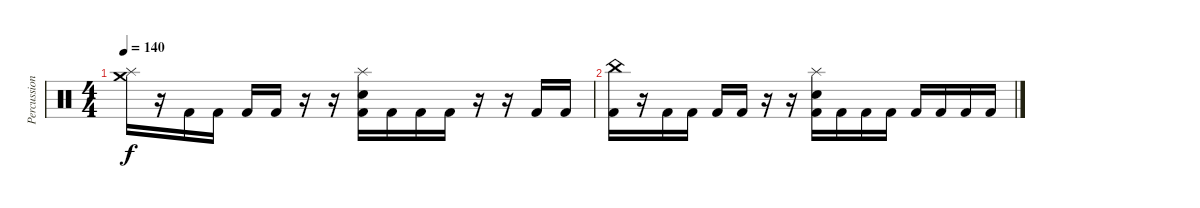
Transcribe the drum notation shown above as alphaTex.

\track ("Percussion" "Percussion") {instrument percussion}
\staff {score}
\articulation defaults
\ts (4 4)
\tempo 140
\clef neutral
\ks c
("Splash (hit)" "Crash medium (hit)").16{dy f} r.16 "Kick (hit) 2".16 "Kick (hit) 2".16 "Kick (hit) 2".16 "Kick (hit) 2".16 r.16 r.16 ("Splash (hit)" "Snare (hit) 2" "Kick (hit) 2").16 "Kick (hit) 2".16 "Kick (hit) 2".16 "Kick (hit) 2".16 r.16 r.16 "Kick (hit) 2".16 "Kick (hit) 2".16 |
("China (hit)" "Kick (hit) 2").16 r.16 "Kick (hit) 2".16 "Kick (hit) 2".16 "Kick (hit) 2".16 "Kick (hit) 2".16 r.16 r.16 ("Splash (hit)" "Snare (hit) 2" "Kick (hit) 2").16 "Kick (hit) 2".16 "Kick (hit) 2".16 "Kick (hit) 2".16 "Kick (hit) 2".16 "Kick (hit) 2".16 "Kick (hit) 2".16 "Kick (hit) 2".16
